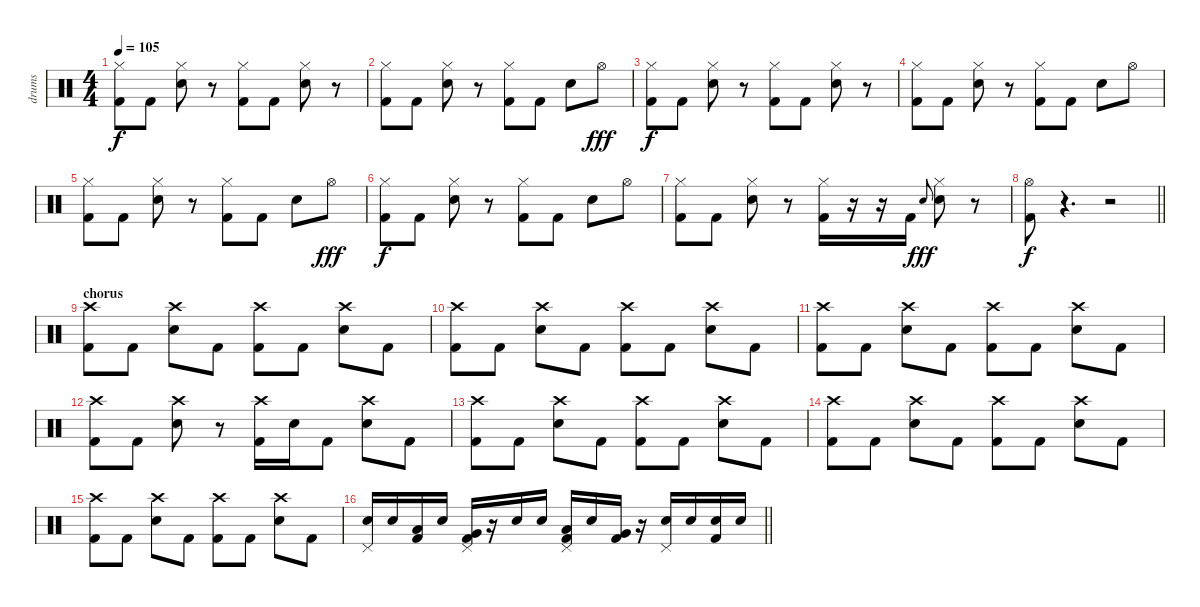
\track ("drums" "drums") {instrument percussion}
\staff {score}
\articulation defaults
\ts (4 4)
\tempo 105
\clef neutral
\ks c
("Hi-Hat (closed)" "Kick (hit) 2").8{dy f} "Kick (hit) 2".8 ("Hi-Hat (closed)" "Electric Snare (hit)").8 r.8 ("Hi-Hat (closed)" "Kick (hit) 2").8 "Kick (hit) 2".8 ("Hi-Hat (closed)" "Electric Snare (hit)").8 r.8 |
("Hi-Hat (closed)" "Kick (hit) 2").8 "Kick (hit) 2".8 ("Hi-Hat (closed)" "Electric Snare (hit)").8 r.8 ("Hi-Hat (closed)" "Kick (hit) 2").8 "Kick (hit) 2".8 "Electric Snare (hit)".8 "Hi-Hat (open)".8{dy fff} |
("Hi-Hat (closed)" "Kick (hit) 2").8{dy f} "Kick (hit) 2".8 ("Hi-Hat (closed)" "Electric Snare (hit)").8 r.8 ("Hi-Hat (closed)" "Kick (hit) 2").8 "Kick (hit) 2".8 ("Hi-Hat (closed)" "Electric Snare (hit)").8 r.8 |
("Hi-Hat (closed)" "Kick (hit) 2").8 "Kick (hit) 2".8 ("Hi-Hat (closed)" "Electric Snare (hit)").8 r.8 ("Hi-Hat (closed)" "Kick (hit) 2").8 "Kick (hit) 2".8 "Electric Snare (hit)".8 "Hi-Hat (open)".8 |
("Hi-Hat (closed)" "Kick (hit) 2").8 "Kick (hit) 2".8 ("Hi-Hat (closed)" "Electric Snare (hit)").8 r.8 ("Hi-Hat (closed)" "Kick (hit) 2").8 "Kick (hit) 2".8 "Electric Snare (hit)".8 "Hi-Hat (open)".8{dy fff} |
("Hi-Hat (closed)" "Kick (hit) 2").8{dy f} "Kick (hit) 2".8 ("Hi-Hat (closed)" "Electric Snare (hit)").8 r.8 ("Hi-Hat (closed)" "Kick (hit) 2").8 "Kick (hit) 2".8 "Electric Snare (hit)".8 "Hi-Hat (open)".8 |
("Hi-Hat (closed)" "Kick (hit) 2").8 "Kick (hit) 2".8 ("Hi-Hat (closed)" "Electric Snare (hit)").8 r.8 ("Hi-Hat (closed)" "Kick (hit) 2").16 r.16 r.16 "Kick (hit) 2".16 "Electric Snare (hit)".8{gr onbeat dy fff} ("Hi-Hat (closed)" "Electric Snare (hit)").8 r.8 |
\barLineRight lightlight
("Hi-Hat (open)" "Kick (hit) 2").8{dy f} r.4{d} r.2 |
\section ("" "chorus")
("Crash high (hit)" "Kick (hit) 2").8 "Kick (hit) 2".8 ("Crash high (hit)" "Electric Snare (hit)").8 "Kick (hit) 2".8 ("Crash high (hit)" "Kick (hit) 2").8 "Kick (hit) 2".8 ("Crash high (hit)" "Electric Snare (hit)").8 "Kick (hit) 2".8 |
("Crash high (hit)" "Kick (hit) 2").8 "Kick (hit) 2".8 ("Crash high (hit)" "Electric Snare (hit)").8 "Kick (hit) 2".8 ("Crash high (hit)" "Kick (hit) 2").8 "Kick (hit) 2".8 ("Crash high (hit)" "Electric Snare (hit)").8 "Kick (hit) 2".8 |
("Crash high (hit)" "Kick (hit) 2").8 "Kick (hit) 2".8 ("Crash high (hit)" "Electric Snare (hit)").8 "Kick (hit) 2".8 ("Crash high (hit)" "Kick (hit) 2").8 "Kick (hit) 2".8 ("Crash high (hit)" "Electric Snare (hit)").8 "Kick (hit) 2".8 |
("Crash high (hit)" "Kick (hit) 2").8 "Kick (hit) 2".8 ("Crash high (hit)" "Electric Snare (hit)").8 r.8 ("Crash high (hit)" "Kick (hit) 2").16 "Electric Snare (hit)".16 "Kick (hit) 2".8 ("Crash high (hit)" "Electric Snare (hit)").8 "Kick (hit) 2".8 |
("Crash high (hit)" "Kick (hit) 2").8 "Kick (hit) 2".8 ("Crash high (hit)" "Electric Snare (hit)").8 "Kick (hit) 2".8 ("Crash high (hit)" "Kick (hit) 2").8 "Kick (hit) 2".8 ("Crash high (hit)" "Electric Snare (hit)").8 "Kick (hit) 2".8 |
("Crash high (hit)" "Kick (hit) 2").8 "Kick (hit) 2".8 ("Crash high (hit)" "Electric Snare (hit)").8 "Kick (hit) 2".8 ("Crash high (hit)" "Kick (hit) 2").8 "Kick (hit) 2".8 ("Crash high (hit)" "Electric Snare (hit)").8 "Kick (hit) 2".8 |
("Crash high (hit)" "Kick (hit) 2").8 "Kick (hit) 2".8 ("Crash high (hit)" "Electric Snare (hit)").8 "Kick (hit) 2".8 ("Crash high (hit)" "Kick (hit) 2").8 "Kick (hit) 2".8 ("Crash high (hit)" "Electric Snare (hit)").8 "Kick (hit) 2".8 |
\barLineRight lightlight
("Pedal Hi-Hat (hit)" "Electric Snare (hit)").16 "Electric Snare (hit)".16 ("Low Tom (hit)" "Kick (hit) 2").16 "Electric Snare (hit)".16 ("Pedal Hi-Hat (hit)" "Very Low Tom (hit)" "Kick (hit) 2").16 r.16 "Electric Snare (hit)".16 "Electric Snare (hit)".16 ("Pedal Hi-Hat (hit)" "Low Tom (hit)" "Kick (hit) 2").16 "Electric Snare (hit)".16 ("Very Low Tom (hit)" "Kick (hit) 2").16 r.16 ("Pedal Hi-Hat (hit)" "Electric Snare (hit)").16 "Electric Snare (hit)".16 ("Electric Snare (hit)" "Kick (hit) 2").16 "Electric Snare (hit)".16
